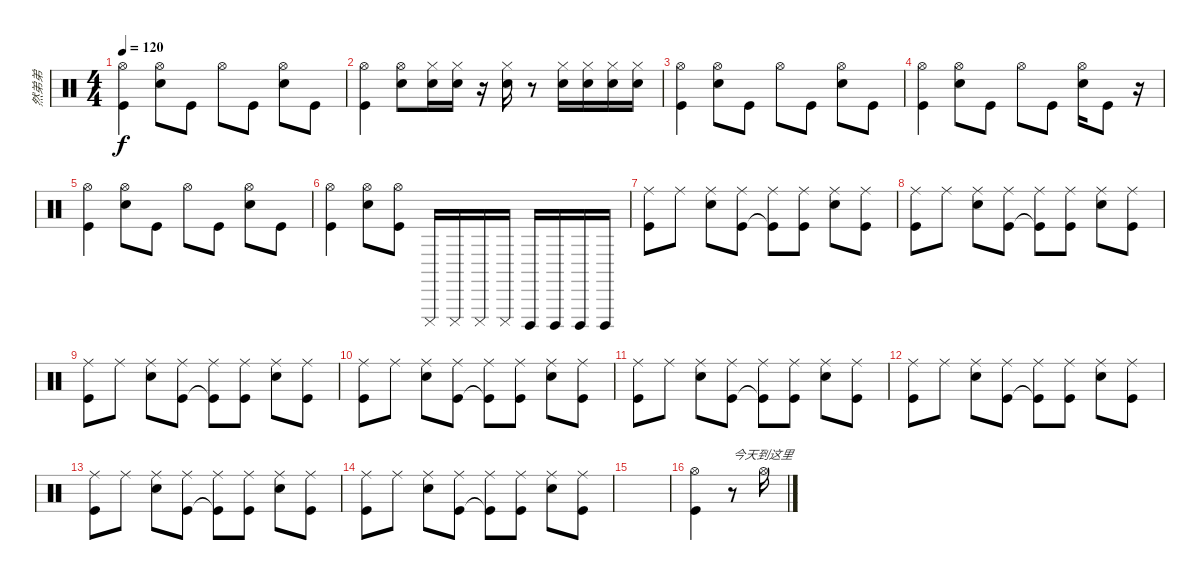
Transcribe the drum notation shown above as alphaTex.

\track ("然弟弟" "然弟弟") {instrument percussion}
\staff {score}
\articulation defaults
\ts (4 4)
\tempo 120
\clef neutral
\ks c
("Hi-Hat (open)" "Kick (hit)").4{dy f} ("Hi-Hat (open)" "Electric Snare (hit)").8 "Kick (hit)".8 "Hi-Hat (open)".8 "Kick (hit)".8 ("Hi-Hat (open)" "Electric Snare (hit)").8 "Kick (hit)".8 |
("Hi-Hat (open)" "Kick (hit)").4 ("Hi-Hat (open)" "Electric Snare (hit)").8 ("Hi-Hat (closed)" "Electric Snare (hit)").16 ("Hi-Hat (closed)" "Electric Snare (hit)").16 r.16 ("Hi-Hat (closed)" "Electric Snare (hit)").16 r.8 ("Hi-Hat (closed)" "Electric Snare (hit)").16 ("Hi-Hat (closed)" "Electric Snare (hit)").16 ("Hi-Hat (closed)" "Electric Snare (hit)").16 ("Hi-Hat (closed)" "Electric Snare (hit)").16 |
("Hi-Hat (open)" "Kick (hit)").4 ("Hi-Hat (open)" "Electric Snare (hit)").8 "Kick (hit)".8 "Hi-Hat (open)".8 "Kick (hit)".8 ("Hi-Hat (open)" "Electric Snare (hit)").8 "Kick (hit)".8 |
("Hi-Hat (open)" "Kick (hit)").4 ("Hi-Hat (open)" "Electric Snare (hit)").8 "Kick (hit)".8 "Hi-Hat (open)".8 "Kick (hit)".8 ("Hi-Hat (open)" "Electric Snare (hit)").16 "Kick (hit)".8 r.16 |
("Hi-Hat (open)" "Kick (hit)").4 ("Hi-Hat (open)" "Electric Snare (hit)").8 "Kick (hit)".8 "Hi-Hat (open)".8 "Kick (hit)".8 ("Hi-Hat (open)" "Electric Snare (hit)").8 "Kick (hit)".8 |
("Hi-Hat (open)" "Kick (hit)").4 ("Hi-Hat (open)" "Electric Snare (hit)").8 ("Hi-Hat (open)" "Kick (hit)").8 "Cuica (mute)".16 "Cuica (mute)".16 "Cuica (mute)".16 "Cuica (mute)".16 "Cuica (open)".16 "Cuica (open)".16 "Cuica (open)".16 "Cuica (open)".16 |
("Ride (middle)" "Kick (hit)").8 "Ride (middle)".8 ("Ride (middle)" "Electric Snare (hit)").8 ("Ride (middle)" "Kick (hit)").8 ("Ride (middle)" "Kick (hit)"{t}).8 ("Ride (middle)" "Kick (hit)").8 ("Ride (middle)" "Electric Snare (hit)").8 ("Ride (middle)" "Kick (hit)").8 |
("Ride (middle)" "Kick (hit)").8 "Ride (middle)".8 ("Ride (middle)" "Electric Snare (hit)").8 ("Ride (middle)" "Kick (hit)").8 ("Ride (middle)" "Kick (hit)"{t}).8 ("Ride (middle)" "Kick (hit)").8 ("Ride (middle)" "Electric Snare (hit)").8 ("Ride (middle)" "Kick (hit)").8 |
("Ride (middle)" "Kick (hit)").8 "Ride (middle)".8 ("Ride (middle)" "Electric Snare (hit)").8 ("Ride (middle)" "Kick (hit)").8 ("Ride (middle)" "Kick (hit)"{t}).8 ("Ride (middle)" "Kick (hit)").8 ("Ride (middle)" "Electric Snare (hit)").8 ("Ride (middle)" "Kick (hit)").8 |
("Ride (middle)" "Kick (hit)").8 "Ride (middle)".8 ("Ride (middle)" "Electric Snare (hit)").8 ("Ride (middle)" "Kick (hit)").8 ("Ride (middle)" "Kick (hit)"{t}).8 ("Ride (middle)" "Kick (hit)").8 ("Ride (middle)" "Electric Snare (hit)").8 ("Ride (middle)" "Kick (hit)").8 |
("Ride (middle)" "Kick (hit)").8 "Ride (middle)".8 ("Ride (middle)" "Electric Snare (hit)").8 ("Ride (middle)" "Kick (hit)").8 ("Ride (middle)" "Kick (hit)"{t}).8 ("Ride (middle)" "Kick (hit)").8 ("Ride (middle)" "Electric Snare (hit)").8 ("Ride (middle)" "Kick (hit)").8 |
("Ride (middle)" "Kick (hit)").8 "Ride (middle)".8 ("Ride (middle)" "Electric Snare (hit)").8 ("Ride (middle)" "Kick (hit)").8 ("Ride (middle)" "Kick (hit)"{t}).8 ("Ride (middle)" "Kick (hit)").8 ("Ride (middle)" "Electric Snare (hit)").8 ("Ride (middle)" "Kick (hit)").8 |
("Ride (middle)" "Kick (hit)").8 "Ride (middle)".8 ("Ride (middle)" "Electric Snare (hit)").8 ("Ride (middle)" "Kick (hit)").8 ("Ride (middle)" "Kick (hit)"{t}).8 ("Ride (middle)" "Kick (hit)").8 ("Ride (middle)" "Electric Snare (hit)").8 ("Ride (middle)" "Kick (hit)").8 |
("Ride (middle)" "Kick (hit)").8 "Ride (middle)".8 ("Ride (middle)" "Electric Snare (hit)").8 ("Ride (middle)" "Kick (hit)").8 ("Ride (middle)" "Kick (hit)"{t}).8 ("Ride (middle)" "Kick (hit)").8 ("Ride (middle)" "Electric Snare (hit)").8 ("Ride (middle)" "Kick (hit)").8 |
|
("Hi-Hat (open)" "Kick (hit)").4 r.8{txt "今天到这里"} "Hi-Hat (open)".16
